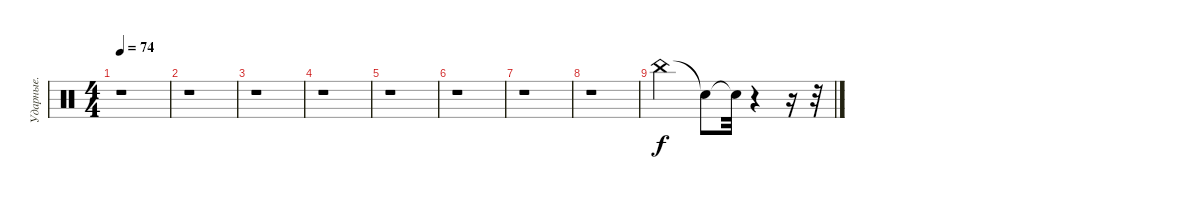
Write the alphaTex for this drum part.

\track ("Ударные." "Ударные.") {instrument percussion}
\staff {score}
\articulation defaults
\ts (4 4)
\tempo 74
\clef neutral
\ks c
r.1{dy f} |
r.1 |
r.1 |
r.1 |
r.1 |
r.1 |
r.1 |
r.1 |
"China (hit)".2 "Snare (hit)"{t}.8 "Snare (hit)"{t}.32 r.4 r.16 r.32
